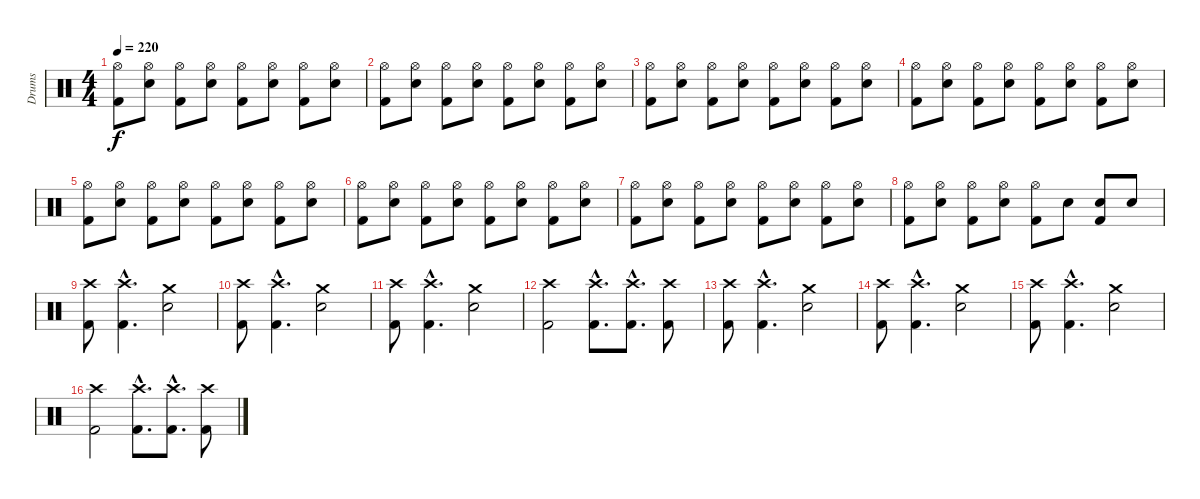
\track ("Drums" "Drums") {instrument percussion}
\staff {score}
\articulation defaults
\ts (4 4)
\tempo 220
\clef neutral
\ks c
("Hi-Hat (open)" "Kick (hit) 2").8{dy f} ("Hi-Hat (open)" "Snare (hit) 2").8 ("Hi-Hat (open)" "Kick (hit) 2").8 ("Hi-Hat (open)" "Snare (hit) 2").8 ("Hi-Hat (open)" "Kick (hit) 2").8 ("Hi-Hat (open)" "Snare (hit) 2").8 ("Hi-Hat (open)" "Kick (hit) 2").8 ("Hi-Hat (open)" "Snare (hit) 2").8 |
("Hi-Hat (open)" "Kick (hit) 2").8 ("Hi-Hat (open)" "Snare (hit) 2").8 ("Hi-Hat (open)" "Kick (hit) 2").8 ("Hi-Hat (open)" "Snare (hit) 2").8 ("Hi-Hat (open)" "Kick (hit) 2").8 ("Hi-Hat (open)" "Snare (hit) 2").8 ("Hi-Hat (open)" "Kick (hit) 2").8 ("Hi-Hat (open)" "Snare (hit) 2").8 |
("Hi-Hat (open)" "Kick (hit) 2").8 ("Hi-Hat (open)" "Snare (hit) 2").8 ("Hi-Hat (open)" "Kick (hit) 2").8 ("Hi-Hat (open)" "Snare (hit) 2").8 ("Hi-Hat (open)" "Kick (hit) 2").8 ("Hi-Hat (open)" "Snare (hit) 2").8 ("Hi-Hat (open)" "Kick (hit) 2").8 ("Hi-Hat (open)" "Snare (hit) 2").8 |
("Hi-Hat (open)" "Kick (hit) 2").8 ("Hi-Hat (open)" "Snare (hit) 2").8 ("Hi-Hat (open)" "Kick (hit) 2").8 ("Hi-Hat (open)" "Snare (hit) 2").8 ("Hi-Hat (open)" "Kick (hit) 2").8 ("Hi-Hat (open)" "Snare (hit) 2").8 ("Hi-Hat (open)" "Kick (hit) 2").8 ("Hi-Hat (open)" "Snare (hit) 2").8 |
("Hi-Hat (open)" "Kick (hit) 2").8 ("Hi-Hat (open)" "Snare (hit) 2").8 ("Hi-Hat (open)" "Kick (hit) 2").8 ("Hi-Hat (open)" "Snare (hit) 2").8 ("Hi-Hat (open)" "Kick (hit) 2").8 ("Hi-Hat (open)" "Snare (hit) 2").8 ("Hi-Hat (open)" "Kick (hit) 2").8 ("Hi-Hat (open)" "Snare (hit) 2").8 |
("Hi-Hat (open)" "Kick (hit) 2").8 ("Hi-Hat (open)" "Snare (hit) 2").8 ("Hi-Hat (open)" "Kick (hit) 2").8 ("Hi-Hat (open)" "Snare (hit) 2").8 ("Hi-Hat (open)" "Kick (hit) 2").8 ("Hi-Hat (open)" "Snare (hit) 2").8 ("Hi-Hat (open)" "Kick (hit) 2").8 ("Hi-Hat (open)" "Snare (hit) 2").8 |
("Hi-Hat (open)" "Kick (hit) 2").8 ("Hi-Hat (open)" "Snare (hit) 2").8 ("Hi-Hat (open)" "Kick (hit) 2").8 ("Hi-Hat (open)" "Snare (hit) 2").8 ("Hi-Hat (open)" "Kick (hit) 2").8 ("Hi-Hat (open)" "Snare (hit) 2").8 ("Hi-Hat (open)" "Kick (hit) 2").8 ("Hi-Hat (open)" "Snare (hit) 2").8 |
("Hi-Hat (open)" "Kick (hit) 2").8 ("Hi-Hat (open)" "Snare (hit) 2").8 ("Hi-Hat (open)" "Kick (hit) 2").8 ("Hi-Hat (open)" "Snare (hit) 2").8 ("Hi-Hat (open)" "Kick (hit) 2").8 "Snare (hit) 2".8 ("Snare (hit) 2" "Kick (hit) 2").8 "Snare (hit) 2".8 |
("Crash high (hit)" "Kick (hit) 2").8 ("Crash high (hit)"{hac} "Kick (hit) 2"{hac}).4{d} ("Crash medium (hit)" "Snare (hit) 2").2 |
("Crash high (hit)" "Kick (hit) 2").8 ("Crash high (hit)"{hac} "Kick (hit) 2"{hac}).4{d} ("Crash medium (hit)" "Snare (hit) 2").2 |
("Crash high (hit)" "Kick (hit) 2").8 ("Crash high (hit)"{hac} "Kick (hit) 2"{hac}).4{d} ("Crash medium (hit)" "Snare (hit) 2").2 |
("Crash high (hit)" "Kick (hit) 2").2 ("Crash high (hit)"{hac} "Kick (hit) 2"{hac}).8{d} ("Crash high (hit)"{hac} "Kick (hit) 2"{hac}).8{d} ("Crash high (hit)" "Kick (hit) 2").8 |
("Crash high (hit)" "Kick (hit) 2").8 ("Crash high (hit)"{hac} "Kick (hit) 2"{hac}).4{d} ("Crash medium (hit)" "Snare (hit) 2").2 |
("Crash high (hit)" "Kick (hit) 2").8 ("Crash high (hit)"{hac} "Kick (hit) 2"{hac}).4{d} ("Crash medium (hit)" "Snare (hit) 2").2 |
("Crash high (hit)" "Kick (hit) 2").8 ("Crash high (hit)"{hac} "Kick (hit) 2"{hac}).4{d} ("Crash medium (hit)" "Snare (hit) 2").2 |
("Crash high (hit)" "Kick (hit) 2").2 ("Crash high (hit)"{hac} "Kick (hit) 2"{hac}).8{d} ("Crash high (hit)"{hac} "Kick (hit) 2"{hac}).8{d} ("Crash high (hit)" "Kick (hit) 2").8
